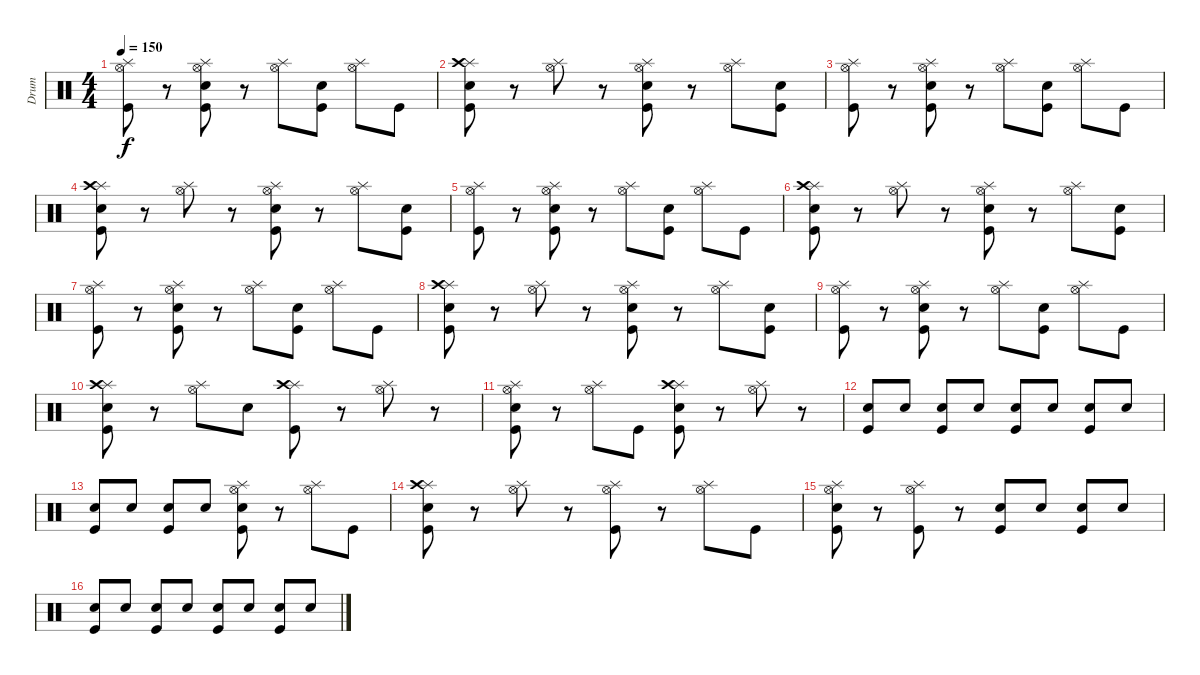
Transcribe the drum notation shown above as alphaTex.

\track ("Drum" "Drum") {instrument percussion}
\staff {score}
\articulation defaults
\ts (4 4)
\tempo 150
\clef neutral
\ks c
("Splash (hit)" "Hi-Hat (open)" "Kick (hit)").8{dy f} r.8 ("Splash (hit)" "Hi-Hat (open)" "Snare (hit) 2" "Kick (hit)").8 r.8 ("Splash (hit)" "Hi-Hat (open)").8 ("Snare (hit) 2" "Kick (hit)").8 ("Splash (hit)" "Hi-Hat (open)").8 "Kick (hit)".8 |
("Splash (hit)" "Crash high (hit)" "Snare (hit) 2" "Kick (hit)").8 r.8 ("Splash (hit)" "Hi-Hat (open)").8 r.8 ("Splash (hit)" "Hi-Hat (open)" "Snare (hit) 2" "Kick (hit)").8 r.8 ("Splash (hit)" "Hi-Hat (open)").8 ("Snare (hit) 2" "Kick (hit)").8 |
("Splash (hit)" "Hi-Hat (open)" "Kick (hit)").8 r.8 ("Splash (hit)" "Hi-Hat (open)" "Snare (hit) 2" "Kick (hit)").8 r.8 ("Splash (hit)" "Hi-Hat (open)").8 ("Snare (hit) 2" "Kick (hit)").8 ("Splash (hit)" "Hi-Hat (open)").8 "Kick (hit)".8 |
("Splash (hit)" "Crash high (hit)" "Snare (hit) 2" "Kick (hit)").8 r.8 ("Splash (hit)" "Hi-Hat (open)").8 r.8 ("Splash (hit)" "Hi-Hat (open)" "Snare (hit) 2" "Kick (hit)").8 r.8 ("Splash (hit)" "Hi-Hat (open)").8 ("Snare (hit) 2" "Kick (hit)").8 |
("Splash (hit)" "Hi-Hat (open)" "Kick (hit)").8 r.8 ("Splash (hit)" "Hi-Hat (open)" "Snare (hit) 2" "Kick (hit)").8 r.8 ("Splash (hit)" "Hi-Hat (open)").8 ("Snare (hit) 2" "Kick (hit)").8 ("Splash (hit)" "Hi-Hat (open)").8 "Kick (hit)".8 |
("Splash (hit)" "Crash high (hit)" "Snare (hit) 2" "Kick (hit)").8 r.8 ("Splash (hit)" "Hi-Hat (open)").8 r.8 ("Splash (hit)" "Hi-Hat (open)" "Snare (hit) 2" "Kick (hit)").8 r.8 ("Splash (hit)" "Hi-Hat (open)").8 ("Snare (hit) 2" "Kick (hit)").8 |
("Splash (hit)" "Hi-Hat (open)" "Kick (hit)").8 r.8 ("Splash (hit)" "Hi-Hat (open)" "Snare (hit) 2" "Kick (hit)").8 r.8 ("Splash (hit)" "Hi-Hat (open)").8 ("Snare (hit) 2" "Kick (hit)").8 ("Splash (hit)" "Hi-Hat (open)").8 "Kick (hit)".8 |
("Splash (hit)" "Crash high (hit)" "Snare (hit) 2" "Kick (hit)").8 r.8 ("Splash (hit)" "Hi-Hat (open)").8 r.8 ("Splash (hit)" "Hi-Hat (open)" "Snare (hit) 2" "Kick (hit)").8 r.8 ("Splash (hit)" "Hi-Hat (open)").8 ("Snare (hit) 2" "Kick (hit)").8 |
("Splash (hit)" "Hi-Hat (open)" "Kick (hit)").8 r.8 ("Splash (hit)" "Hi-Hat (open)" "Snare (hit) 2" "Kick (hit)").8 r.8 ("Splash (hit)" "Hi-Hat (open)").8 ("Snare (hit) 2" "Kick (hit)").8 ("Splash (hit)" "Hi-Hat (open)").8 "Kick (hit)".8 |
("Splash (hit)" "Crash high (hit)" "Snare (hit) 2" "Kick (hit)").8 r.8 ("Splash (hit)" "Hi-Hat (open)").8 "Snare (hit) 2".8 ("Splash (hit)" "Crash high (hit)" "Kick (hit)").8 r.8 ("Splash (hit)" "Hi-Hat (open)").8 r.8 |
("Splash (hit)" "Hi-Hat (open)" "Snare (hit) 2" "Kick (hit)").8 r.8 ("Splash (hit)" "Hi-Hat (open)").8 "Kick (hit)".8 ("Splash (hit)" "Crash high (hit)" "Snare (hit) 2" "Kick (hit)").8 r.8 ("Splash (hit)" "Hi-Hat (open)").8 r.8 |
("Snare (hit) 2" "Kick (hit)").8 "Snare (hit) 2".8 ("Snare (hit) 2" "Kick (hit)").8 "Snare (hit) 2".8 ("Snare (hit) 2" "Kick (hit)").8 "Snare (hit) 2".8 ("Snare (hit) 2" "Kick (hit)").8 "Snare (hit) 2".8 |
("Snare (hit) 2" "Kick (hit)").8 "Snare (hit) 2".8 ("Snare (hit) 2" "Kick (hit)").8 "Snare (hit) 2".8 ("Splash (hit)" "Hi-Hat (open)" "Snare (hit) 2" "Kick (hit)").8 r.8 ("Splash (hit)" "Hi-Hat (open)").8 "Kick (hit)".8 |
("Splash (hit)" "Crash high (hit)" "Snare (hit) 2" "Kick (hit)").8 r.8 ("Splash (hit)" "Hi-Hat (open)").8 r.8 ("Splash (hit)" "Hi-Hat (open)" "Kick (hit)").8 r.8 ("Splash (hit)" "Hi-Hat (open)").8 "Kick (hit)".8 |
("Splash (hit)" "Hi-Hat (open)" "Snare (hit) 2" "Kick (hit)").8 r.8 ("Splash (hit)" "Hi-Hat (open)" "Kick (hit)").8 r.8 ("Snare (hit) 2" "Kick (hit)").8 "Snare (hit) 2".8 ("Snare (hit) 2" "Kick (hit)").8 "Snare (hit) 2".8 |
("Snare (hit) 2" "Kick (hit)").8 "Snare (hit) 2".8 ("Snare (hit) 2" "Kick (hit)").8 "Snare (hit) 2".8 ("Snare (hit) 2" "Kick (hit)").8 "Snare (hit) 2".8 ("Snare (hit) 2" "Kick (hit)").8 "Snare (hit) 2".8
